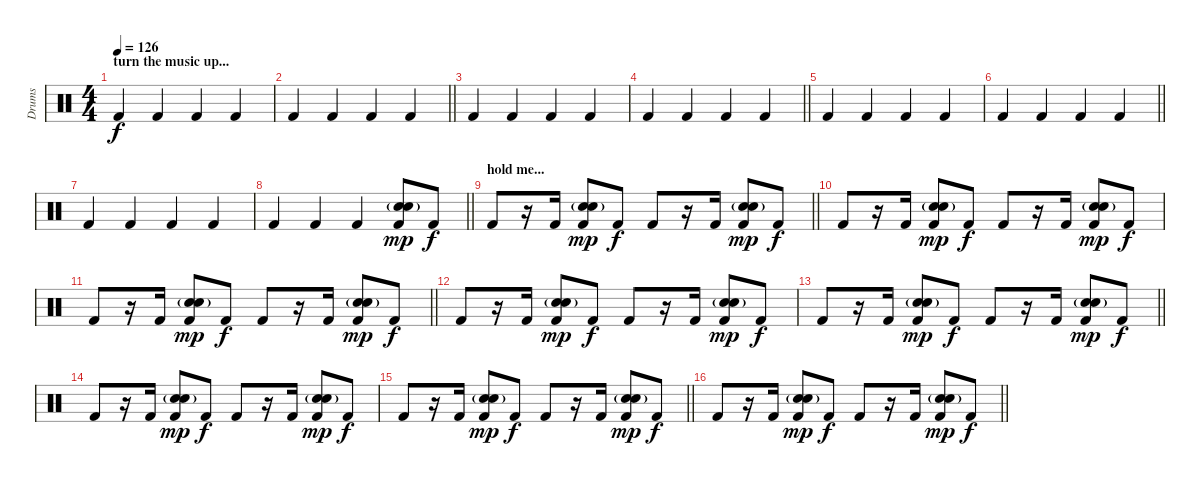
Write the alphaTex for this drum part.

\track ("Drums" "Drums") {instrument percussion}
\staff {score}
\articulation defaults
\ts (4 4)
\section ("" "turn the music up...")
\tempo 126
\clef neutral
\ks c "Kick (hit) 2".4{dy f} "Kick (hit) 2".4 "Kick (hit) 2".4 "Kick (hit) 2".4
|
\barLineRight lightlight "Kick (hit) 2".4 "Kick (hit) 2".4 "Kick (hit) 2".4 "Kick (hit) 2".4
|
"Kick (hit) 2".4 "Kick (hit) 2".4 "Kick (hit) 2".4 "Kick (hit) 2".4 |
\barLineRight lightlight "Kick (hit) 2".4 "Kick (hit) 2".4 "Kick (hit) 2".4 "Kick (hit) 2".4
|
"Kick (hit) 2".4 "Kick (hit) 2".4 "Kick (hit) 2".4 "Kick (hit) 2".4 |
\barLineRight lightlight "Kick (hit) 2".4 "Kick (hit) 2".4 "Kick (hit) 2".4 "Kick (hit) 2".4
|
"Kick (hit) 2".4 "Kick (hit) 2".4 "Kick (hit) 2".4 "Kick (hit) 2".4 |
\barLineRight lightlight "Kick (hit) 2".4 "Kick (hit) 2".4 "Kick (hit) 2".4
("Hand Clap (hit)" "Electric Snare (hit)"{g} "Kick (hit) 2").8{dy mp} "Kick (hit) 2".8{dy f} |
\section ("" "hold me...")
\barLineRight lightlight "Kick (hit) 2".8
r.16 "Kick (hit) 2".16 ("Hand Clap (hit)" "Electric Snare (hit)"{g} "Kick (hit) 2").8{dy mp} "Kick (hit) 2".8{dy f} "Kick (hit) 2".8 r.16 "Kick (hit) 2".16 ("Hand Clap (hit)" "Electric Snare (hit)"{g} "Kick (hit) 2").8{dy mp} "Kick (hit) 2".8{dy f} |
"Kick (hit) 2".8 r.16 "Kick (hit) 2".16 ("Hand Clap (hit)" "Electric Snare (hit)"{g} "Kick (hit) 2").8{dy mp} "Kick (hit) 2".8{dy f} "Kick (hit) 2".8 r.16 "Kick (hit) 2".16 ("Hand Clap (hit)" "Electric Snare (hit)"{g} "Kick (hit) 2").8{dy mp} "Kick (hit) 2".8{dy f} |
\barLineRight lightlight "Kick (hit) 2".8
r.16 "Kick (hit) 2".16 ("Hand Clap (hit)" "Electric Snare (hit)"{g} "Kick (hit) 2").8{dy mp} "Kick (hit) 2".8{dy f} "Kick (hit) 2".8 r.16 "Kick (hit) 2".16 ("Hand Clap (hit)" "Electric Snare (hit)"{g} "Kick (hit) 2").8{dy mp} "Kick (hit) 2".8{dy f} |
"Kick (hit) 2".8 r.16 "Kick (hit) 2".16 ("Hand Clap (hit)" "Electric Snare (hit)"{g} "Kick (hit) 2").8{dy mp} "Kick (hit) 2".8{dy f} "Kick (hit) 2".8 r.16 "Kick (hit) 2".16 ("Hand Clap (hit)" "Electric Snare (hit)"{g} "Kick (hit) 2").8{dy mp} "Kick (hit) 2".8{dy f} |
\barLineRight lightlight "Kick (hit) 2".8
r.16 "Kick (hit) 2".16 ("Hand Clap (hit)" "Electric Snare (hit)"{g} "Kick (hit) 2").8{dy mp} "Kick (hit) 2".8{dy f} "Kick (hit) 2".8 r.16 "Kick (hit) 2".16 ("Hand Clap (hit)" "Electric Snare (hit)"{g} "Kick (hit) 2").8{dy mp} "Kick (hit) 2".8{dy f} |
"Kick (hit) 2".8 r.16 "Kick (hit) 2".16 ("Hand Clap (hit)" "Electric Snare (hit)"{g} "Kick (hit) 2").8{dy mp} "Kick (hit) 2".8{dy f} "Kick (hit) 2".8 r.16 "Kick (hit) 2".16 ("Hand Clap (hit)" "Electric Snare (hit)"{g} "Kick (hit) 2").8{dy mp} "Kick (hit) 2".8{dy f} |
\barLineRight lightlight "Kick (hit) 2".8
r.16 "Kick (hit) 2".16 ("Hand Clap (hit)" "Electric Snare (hit)"{g} "Kick (hit) 2").8{dy mp} "Kick (hit) 2".8{dy f} "Kick (hit) 2".8 r.16 "Kick (hit) 2".16 ("Hand Clap (hit)" "Electric Snare (hit)"{g} "Kick (hit) 2").8{dy mp} "Kick (hit) 2".8{dy f} |
\barLineRight lightlight "Kick (hit) 2".8
r.16 "Kick (hit) 2".16 ("Hand Clap (hit)" "Electric Snare (hit)"{g} "Kick (hit) 2").8{dy mp} "Kick (hit) 2".8{dy f} "Kick (hit) 2".8 r.16 "Kick (hit) 2".16 ("Hand Clap (hit)" "Electric Snare (hit)"{g} "Kick (hit) 2").8{dy mp} "Kick (hit) 2".8{dy f}
